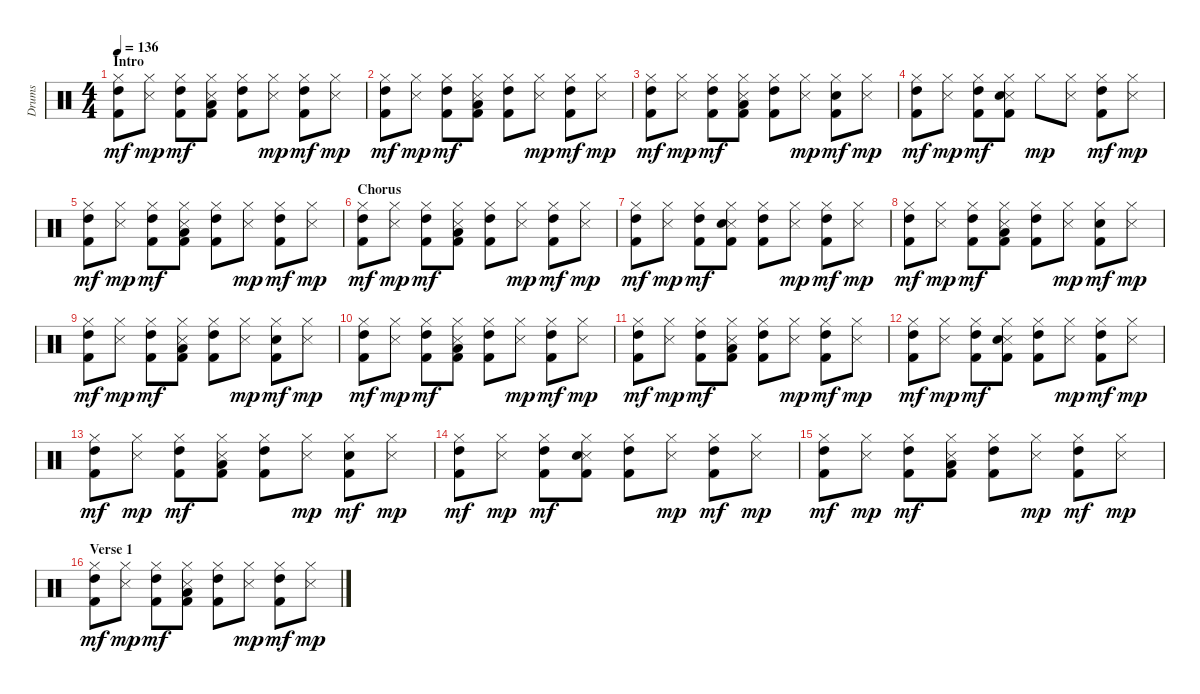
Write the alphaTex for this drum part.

\track ("Drums" "Drums") {instrument percussion}
\staff {score}
\articulation defaults
\ts (4 4)
\section ("" "Intro")
\tempo 136
\clef neutral
\ks c
("Hi-Hat (closed)" "High Tom (hit)" "Kick (hit) 2").8{dy mf} ("Hi-Hat (closed)" "Metronome (hit)").8{dy mp} ("Hi-Hat (closed)" "High Tom (hit)" "Kick (hit) 2").8{dy mf} ("Hi-Hat (closed)" "Metronome (hit)" "Low Floor Tom (hit)" "Kick (hit) 2").8 ("Hi-Hat (closed)" "High Tom (hit)" "Kick (hit) 2").8 ("Hi-Hat (closed)" "Metronome (hit)").8{dy mp} ("Hi-Hat (closed)" "High Tom (hit)" "Kick (hit) 2").8{dy mf} ("Hi-Hat (closed)" "Metronome (hit)").8{dy mp} |
("Hi-Hat (closed)" "High Tom (hit)" "Kick (hit) 2").8{dy mf} ("Hi-Hat (closed)" "Metronome (hit)").8{dy mp} ("Hi-Hat (closed)" "High Tom (hit)" "Kick (hit) 2").8{dy mf} ("Hi-Hat (closed)" "Metronome (hit)" "Low Floor Tom (hit)" "Kick (hit) 2").8 ("Hi-Hat (closed)" "High Tom (hit)" "Kick (hit) 2").8 ("Hi-Hat (closed)" "Metronome (hit)").8{dy mp} ("Hi-Hat (closed)" "High Tom (hit)" "Kick (hit) 2").8{dy mf} ("Hi-Hat (closed)" "Metronome (hit)").8{dy mp} |
("Hi-Hat (closed)" "High Tom (hit)" "Kick (hit) 2").8{dy mf} ("Hi-Hat (closed)" "Metronome (hit)").8{dy mp} ("Hi-Hat (closed)" "High Tom (hit)" "Kick (hit) 2").8{dy mf} ("Hi-Hat (closed)" "Metronome (hit)" "Low Floor Tom (hit)" "Kick (hit) 2").8 ("Hi-Hat (closed)" "High Tom (hit)" "Kick (hit) 2").8 ("Hi-Hat (closed)" "Metronome (hit)").8{dy mp} ("Hi-Hat (closed)" "Electric Snare (hit)" "Kick (hit) 2").8{dy mf} ("Hi-Hat (closed)" "Metronome (hit)").8{dy mp} |
("Hi-Hat (closed)" "High Tom (hit)" "Kick (hit) 2").8{dy mf} ("Hi-Hat (closed)" "Metronome (hit)").8{dy mp} ("Hi-Hat (closed)" "High Tom (hit)" "Kick (hit) 2").8{dy mf} ("Hi-Hat (closed)" "Metronome (hit)" "Electric Snare (hit)" "Kick (hit) 2").8 "Hi-Hat (closed)".8{dy mp} ("Hi-Hat (closed)" "Metronome (hit)").8 ("Hi-Hat (closed)" "High Tom (hit)" "Kick (hit) 2").8{dy mf} ("Hi-Hat (closed)" "Metronome (hit)").8{dy mp} |
("Hi-Hat (closed)" "High Tom (hit)" "Kick (hit) 2").8{dy mf} ("Hi-Hat (closed)" "Metronome (hit)").8{dy mp} ("Hi-Hat (closed)" "High Tom (hit)" "Kick (hit) 2").8{dy mf} ("Hi-Hat (closed)" "Metronome (hit)" "Low Floor Tom (hit)" "Kick (hit) 2").8 ("Hi-Hat (closed)" "High Tom (hit)" "Kick (hit) 2").8 ("Hi-Hat (closed)" "Metronome (hit)").8{dy mp} ("Hi-Hat (closed)" "High Tom (hit)" "Kick (hit) 2").8{dy mf} ("Hi-Hat (closed)" "Metronome (hit)").8{dy mp} |
\section ("" "Chorus")
("Hi-Hat (closed)" "High Tom (hit)" "Kick (hit) 2").8{dy mf} ("Hi-Hat (closed)" "Metronome (hit)").8{dy mp} ("Hi-Hat (closed)" "High Tom (hit)" "Kick (hit) 2").8{dy mf} ("Hi-Hat (closed)" "Metronome (hit)" "Low Floor Tom (hit)" "Kick (hit) 2").8 ("Hi-Hat (closed)" "High Tom (hit)" "Kick (hit) 2").8 ("Hi-Hat (closed)" "Metronome (hit)").8{dy mp} ("Hi-Hat (closed)" "High Tom (hit)" "Kick (hit) 2").8{dy mf} ("Hi-Hat (closed)" "Metronome (hit)").8{dy mp} |
("Hi-Hat (closed)" "High Tom (hit)" "Kick (hit) 2").8{dy mf} ("Hi-Hat (closed)" "Metronome (hit)").8{dy mp} ("Hi-Hat (closed)" "High Tom (hit)" "Kick (hit) 2").8{dy mf} ("Hi-Hat (closed)" "Metronome (hit)" "Electric Snare (hit)" "Kick (hit) 2").8 ("Hi-Hat (closed)" "High Tom (hit)" "Kick (hit) 2").8 ("Hi-Hat (closed)" "Metronome (hit)").8{dy mp} ("Hi-Hat (closed)" "High Tom (hit)" "Kick (hit) 2").8{dy mf} ("Hi-Hat (closed)" "Metronome (hit)").8{dy mp} |
("Hi-Hat (closed)" "High Tom (hit)" "Kick (hit) 2").8{dy mf} ("Hi-Hat (closed)" "Metronome (hit)").8{dy mp} ("Hi-Hat (closed)" "High Tom (hit)" "Kick (hit) 2").8{dy mf} ("Hi-Hat (closed)" "Metronome (hit)" "Low Floor Tom (hit)" "Kick (hit) 2").8 ("Hi-Hat (closed)" "High Tom (hit)" "Kick (hit) 2").8 ("Hi-Hat (closed)" "Metronome (hit)").8{dy mp} ("Hi-Hat (closed)" "Electric Snare (hit)" "Kick (hit) 2").8{dy mf} ("Hi-Hat (closed)" "Metronome (hit)").8{dy mp} |
("Hi-Hat (closed)" "High Tom (hit)" "Kick (hit) 2").8{dy mf} ("Hi-Hat (closed)" "Metronome (hit)").8{dy mp} ("Hi-Hat (closed)" "High Tom (hit)" "Kick (hit) 2").8{dy mf} ("Hi-Hat (closed)" "Metronome (hit)" "Low Floor Tom (hit)" "Kick (hit) 2").8 ("Hi-Hat (closed)" "High Tom (hit)" "Kick (hit) 2").8 ("Hi-Hat (closed)" "Metronome (hit)").8{dy mp} ("Hi-Hat (closed)" "Electric Snare (hit)" "Kick (hit) 2").8{dy mf} ("Hi-Hat (closed)" "Metronome (hit)").8{dy mp} |
("Hi-Hat (closed)" "High Tom (hit)" "Kick (hit) 2").8{dy mf} ("Hi-Hat (closed)" "Metronome (hit)").8{dy mp} ("Hi-Hat (closed)" "High Tom (hit)" "Kick (hit) 2").8{dy mf} ("Hi-Hat (closed)" "Metronome (hit)" "Low Floor Tom (hit)" "Kick (hit) 2").8 ("Hi-Hat (closed)" "High Tom (hit)" "Kick (hit) 2").8 ("Hi-Hat (closed)" "Metronome (hit)").8{dy mp} ("Hi-Hat (closed)" "High Tom (hit)" "Kick (hit) 2").8{dy mf} ("Hi-Hat (closed)" "Metronome (hit)").8{dy mp} |
("Hi-Hat (closed)" "High Tom (hit)" "Kick (hit) 2").8{dy mf} ("Hi-Hat (closed)" "Metronome (hit)").8{dy mp} ("Hi-Hat (closed)" "High Tom (hit)" "Kick (hit) 2").8{dy mf} ("Hi-Hat (closed)" "Metronome (hit)" "Low Floor Tom (hit)" "Kick (hit) 2").8 ("Hi-Hat (closed)" "High Tom (hit)" "Kick (hit) 2").8 ("Hi-Hat (closed)" "Metronome (hit)").8{dy mp} ("Hi-Hat (closed)" "High Tom (hit)" "Kick (hit) 2").8{dy mf} ("Hi-Hat (closed)" "Metronome (hit)").8{dy mp} |
("Hi-Hat (closed)" "High Tom (hit)" "Kick (hit) 2").8{dy mf} ("Hi-Hat (closed)" "Metronome (hit)").8{dy mp} ("Hi-Hat (closed)" "High Tom (hit)" "Kick (hit) 2").8{dy mf} ("Hi-Hat (closed)" "Metronome (hit)" "Electric Snare (hit)" "Kick (hit) 2").8 ("Hi-Hat (closed)" "High Tom (hit)" "Kick (hit) 2").8 ("Hi-Hat (closed)" "Metronome (hit)").8{dy mp} ("Hi-Hat (closed)" "High Tom (hit)" "Kick (hit) 2").8{dy mf} ("Hi-Hat (closed)" "Metronome (hit)").8{dy mp} |
("Hi-Hat (closed)" "High Tom (hit)" "Kick (hit) 2").8{dy mf} ("Hi-Hat (closed)" "Metronome (hit)").8{dy mp} ("Hi-Hat (closed)" "High Tom (hit)" "Kick (hit) 2").8{dy mf} ("Hi-Hat (closed)" "Metronome (hit)" "Low Floor Tom (hit)" "Kick (hit) 2").8 ("Hi-Hat (closed)" "High Tom (hit)" "Kick (hit) 2").8 ("Hi-Hat (closed)" "Metronome (hit)").8{dy mp} ("Hi-Hat (closed)" "Electric Snare (hit)" "Kick (hit) 2").8{dy mf} ("Hi-Hat (closed)" "Metronome (hit)").8{dy mp} |
("Hi-Hat (closed)" "High Tom (hit)" "Kick (hit) 2").8{dy mf} ("Hi-Hat (closed)" "Metronome (hit)").8{dy mp} ("Hi-Hat (closed)" "High Tom (hit)" "Kick (hit) 2").8{dy mf} ("Hi-Hat (closed)" "Metronome (hit)" "Electric Snare (hit)" "Kick (hit) 2").8 ("Hi-Hat (closed)" "High Tom (hit)" "Kick (hit) 2").8 ("Hi-Hat (closed)" "Metronome (hit)").8{dy mp} ("Hi-Hat (closed)" "High Tom (hit)" "Kick (hit) 2").8{dy mf} ("Hi-Hat (closed)" "Metronome (hit)").8{dy mp} |
("Hi-Hat (closed)" "High Tom (hit)" "Kick (hit) 2").8{dy mf} ("Hi-Hat (closed)" "Metronome (hit)").8{dy mp} ("Hi-Hat (closed)" "High Tom (hit)" "Kick (hit) 2").8{dy mf} ("Hi-Hat (closed)" "Metronome (hit)" "Low Floor Tom (hit)" "Kick (hit) 2").8 ("Hi-Hat (closed)" "High Tom (hit)" "Kick (hit) 2").8 ("Hi-Hat (closed)" "Metronome (hit)").8{dy mp} ("Hi-Hat (closed)" "High Tom (hit)" "Kick (hit) 2").8{dy mf} ("Hi-Hat (closed)" "Metronome (hit)").8{dy mp} |
\section ("" "Verse 1")
("Hi-Hat (closed)" "High Tom (hit)" "Kick (hit) 2").8{dy mf} ("Hi-Hat (closed)" "Metronome (hit)").8{dy mp} ("Hi-Hat (closed)" "High Tom (hit)" "Kick (hit) 2").8{dy mf} ("Hi-Hat (closed)" "Metronome (hit)" "Low Floor Tom (hit)" "Kick (hit) 2").8 ("Hi-Hat (closed)" "High Tom (hit)" "Kick (hit) 2").8 ("Hi-Hat (closed)" "Metronome (hit)").8{dy mp} ("Hi-Hat (closed)" "High Tom (hit)" "Kick (hit) 2").8{dy mf} ("Hi-Hat (closed)" "Metronome (hit)").8{dy mp}
